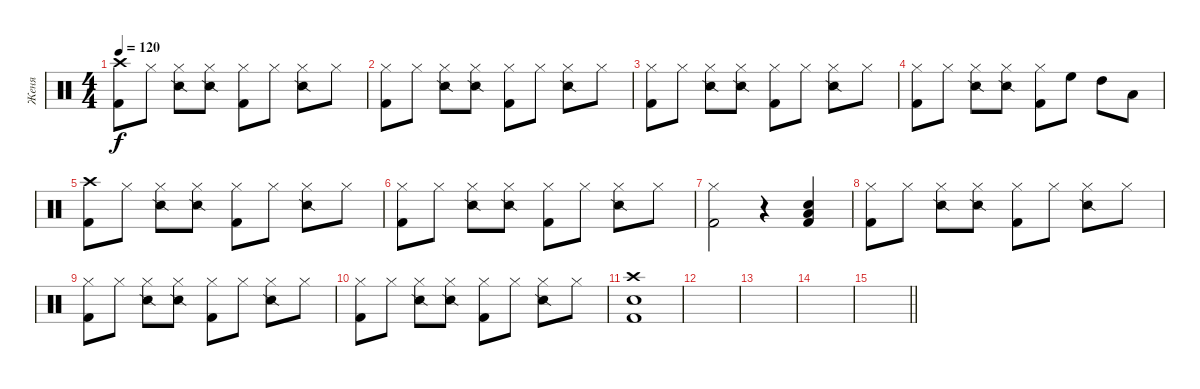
\track ("Женя" "Женя") {instrument percussion}
\staff {score}
\articulation defaults
\ts (4 4)
\tempo 120
\clef neutral
\ks c
("Crash high (hit)" "Kick (hit) 2").8{dy f} "Hi-Hat (closed)".8 ("Hi-Hat (closed)" "Snare (side stick) 2").8 ("Hi-Hat (closed)" "Snare (side stick) 2").8 ("Hi-Hat (closed)" "Kick (hit) 2").8 "Hi-Hat (closed)".8 ("Hi-Hat (closed)" "Snare (side stick) 2").8 "Hi-Hat (closed)".8 |
("Hi-Hat (closed)" "Kick (hit) 2").8 "Hi-Hat (closed)".8 ("Hi-Hat (closed)" "Snare (side stick) 2").8 ("Hi-Hat (closed)" "Snare (side stick) 2").8 ("Hi-Hat (closed)" "Kick (hit) 2").8 "Hi-Hat (closed)".8 ("Hi-Hat (closed)" "Snare (side stick) 2").8 "Hi-Hat (closed)".8 |
("Hi-Hat (closed)" "Kick (hit) 2").8 "Hi-Hat (closed)".8 ("Hi-Hat (closed)" "Snare (side stick) 2").8 ("Hi-Hat (closed)" "Snare (side stick) 2").8 ("Hi-Hat (closed)" "Kick (hit) 2").8 "Hi-Hat (closed)".8 ("Hi-Hat (closed)" "Snare (side stick) 2").8 "Hi-Hat (closed)".8 |
("Hi-Hat (closed)" "Kick (hit) 2").8 "Hi-Hat (closed)".8 ("Hi-Hat (closed)" "Snare (side stick) 2").8 ("Hi-Hat (closed)" "Snare (side stick) 2").8 ("Hi-Hat (closed)" "Kick (hit) 2").8 "High Floor Tom (hit)".8 "High Tom (hit)".8 "Low Tom (hit)".8 |
("Crash high (hit)" "Kick (hit) 2").8 "Hi-Hat (closed)".8 ("Hi-Hat (closed)" "Snare (side stick) 2").8 ("Hi-Hat (closed)" "Snare (side stick) 2").8 ("Hi-Hat (closed)" "Kick (hit) 2").8 "Hi-Hat (closed)".8 ("Hi-Hat (closed)" "Snare (side stick) 2").8 "Hi-Hat (closed)".8 |
("Hi-Hat (closed)" "Kick (hit) 2").8 "Hi-Hat (closed)".8 ("Hi-Hat (closed)" "Snare (side stick) 2").8 ("Hi-Hat (closed)" "Snare (side stick) 2").8 ("Hi-Hat (closed)" "Kick (hit) 2").8 "Hi-Hat (closed)".8 ("Hi-Hat (closed)" "Snare (side stick) 2").8 "Hi-Hat (closed)".8 |
("Hi-Hat (closed)" "Kick (hit) 2").2 r.4 ("Low Tom (hit)" "Snare (hit) 2" "Kick (hit) 2").4 |
("Hi-Hat (closed)" "Kick (hit) 2").8 "Hi-Hat (closed)".8 ("Hi-Hat (closed)" "Snare (side stick) 2").8 ("Hi-Hat (closed)" "Snare (side stick) 2").8 ("Hi-Hat (closed)" "Kick (hit) 2").8 "Hi-Hat (closed)".8 ("Hi-Hat (closed)" "Snare (side stick) 2").8 "Hi-Hat (closed)".8 |
("Hi-Hat (closed)" "Kick (hit) 2").8 "Hi-Hat (closed)".8 ("Hi-Hat (closed)" "Snare (side stick) 2").8 ("Hi-Hat (closed)" "Snare (side stick) 2").8 ("Hi-Hat (closed)" "Kick (hit) 2").8 "Hi-Hat (closed)".8 ("Hi-Hat (closed)" "Snare (side stick) 2").8 "Hi-Hat (closed)".8 |
("Hi-Hat (closed)" "Kick (hit) 2").8 "Hi-Hat (closed)".8 ("Hi-Hat (closed)" "Snare (side stick) 2").8 ("Hi-Hat (closed)" "Snare (side stick) 2").8 ("Hi-Hat (closed)" "Kick (hit) 2").8 "Hi-Hat (closed)".8 ("Hi-Hat (closed)" "Snare (side stick) 2").8 "Hi-Hat (closed)".8 |
("Crash high (hit)" "Snare (hit) 2" "Kick (hit) 2").1 |
|
|
|
\barLineRight lightlight
